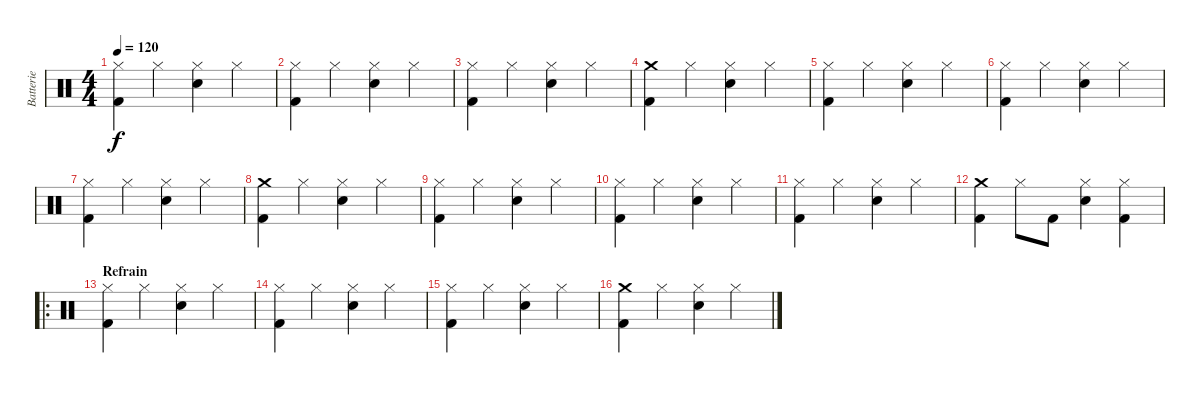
\track ("Batterie" "Batterie") {instrument percussion}
\staff {score}
\articulation defaults
\ts (4 4)
\tempo 120
\clef neutral
\ks c
("Hi-Hat (closed)" "Kick (hit) 2").4{dy f} "Hi-Hat (closed)".4 ("Hi-Hat (closed)" "Snare (hit) 2").4 "Hi-Hat (closed)".4 |
("Hi-Hat (closed)" "Kick (hit) 2").4 "Hi-Hat (closed)".4 ("Hi-Hat (closed)" "Snare (hit) 2").4 "Hi-Hat (closed)".4 |
("Hi-Hat (closed)" "Kick (hit) 2").4 "Hi-Hat (closed)".4 ("Hi-Hat (closed)" "Snare (hit) 2").4 "Hi-Hat (closed)".4 |
("Crash medium (hit)" "Kick (hit) 2").4 "Hi-Hat (closed)".4 ("Hi-Hat (closed)" "Snare (hit) 2").4 "Hi-Hat (closed)".4 |
("Hi-Hat (closed)" "Kick (hit) 2").4 "Hi-Hat (closed)".4 ("Hi-Hat (closed)" "Snare (hit) 2").4 "Hi-Hat (closed)".4 |
("Hi-Hat (closed)" "Kick (hit) 2").4 "Hi-Hat (closed)".4 ("Hi-Hat (closed)" "Snare (hit) 2").4 "Hi-Hat (closed)".4 |
("Hi-Hat (closed)" "Kick (hit) 2").4 "Hi-Hat (closed)".4 ("Hi-Hat (closed)" "Snare (hit) 2").4 "Hi-Hat (closed)".4 |
("Crash medium (hit)" "Kick (hit) 2").4 "Hi-Hat (closed)".4 ("Hi-Hat (closed)" "Snare (hit) 2").4 "Hi-Hat (closed)".4 |
("Hi-Hat (closed)" "Kick (hit) 2").4 "Hi-Hat (closed)".4 ("Hi-Hat (closed)" "Snare (hit) 2").4 "Hi-Hat (closed)".4 |
("Hi-Hat (closed)" "Kick (hit) 2").4 "Hi-Hat (closed)".4 ("Hi-Hat (closed)" "Snare (hit) 2").4 "Hi-Hat (closed)".4 |
("Hi-Hat (closed)" "Kick (hit) 2").4 "Hi-Hat (closed)".4 ("Hi-Hat (closed)" "Snare (hit) 2").4 "Hi-Hat (closed)".4 |
("Crash medium (hit)" "Kick (hit) 2").4 "Hi-Hat (closed)".8 "Kick (hit) 2".8 ("Hi-Hat (closed)" "Snare (hit) 2").4 ("Hi-Hat (closed)" "Kick (hit) 2").4 |
\ro
\section ("" "Refrain")
("Hi-Hat (closed)" "Kick (hit) 2").4 "Hi-Hat (closed)".4 ("Hi-Hat (closed)" "Snare (hit) 2").4 "Hi-Hat (closed)".4 |
("Hi-Hat (closed)" "Kick (hit) 2").4 "Hi-Hat (closed)".4 ("Hi-Hat (closed)" "Snare (hit) 2").4 "Hi-Hat (closed)".4 |
("Hi-Hat (closed)" "Kick (hit) 2").4 "Hi-Hat (closed)".4 ("Hi-Hat (closed)" "Snare (hit) 2").4 "Hi-Hat (closed)".4 |
("Crash medium (hit)" "Kick (hit) 2").4 "Hi-Hat (closed)".4 ("Hi-Hat (closed)" "Snare (hit) 2").4 "Hi-Hat (closed)".4
